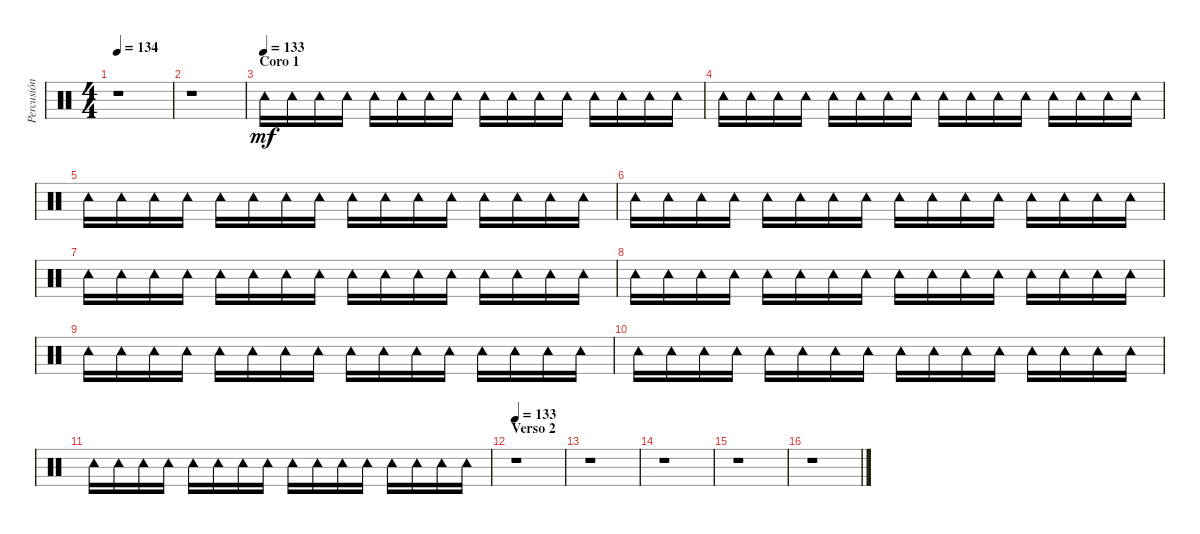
\track ("Percusión extra" "Percusión ") {instrument percussion}
\staff {score}
\articulation defaults
\ts (4 4)
\tempo 134
\clef neutral
\ks c
r.1{dy mf} |
r.1 |
\section ("" "Coro 1")
\tempo (133)
"Tambourine (hit)".16 "Tambourine (hit)".16 "Tambourine (hit)".16 "Tambourine (hit)".16 "Tambourine (hit)".16 "Tambourine (hit)".16 "Tambourine (hit)".16 "Tambourine (hit)".16 "Tambourine (hit)".16 "Tambourine (hit)".16 "Tambourine (hit)".16 "Tambourine (hit)".16 "Tambourine (hit)".16 "Tambourine (hit)".16 "Tambourine (hit)".16 "Tambourine (hit)".16 |
"Tambourine (hit)".16 "Tambourine (hit)".16 "Tambourine (hit)".16 "Tambourine (hit)".16 "Tambourine (hit)".16 "Tambourine (hit)".16 "Tambourine (hit)".16 "Tambourine (hit)".16 "Tambourine (hit)".16 "Tambourine (hit)".16 "Tambourine (hit)".16 "Tambourine (hit)".16 "Tambourine (hit)".16 "Tambourine (hit)".16 "Tambourine (hit)".16 "Tambourine (hit)".16 |
"Tambourine (hit)".16 "Tambourine (hit)".16 "Tambourine (hit)".16 "Tambourine (hit)".16 "Tambourine (hit)".16 "Tambourine (hit)".16 "Tambourine (hit)".16 "Tambourine (hit)".16 "Tambourine (hit)".16 "Tambourine (hit)".16 "Tambourine (hit)".16 "Tambourine (hit)".16 "Tambourine (hit)".16 "Tambourine (hit)".16 "Tambourine (hit)".16 "Tambourine (hit)".16 |
"Tambourine (hit)".16 "Tambourine (hit)".16 "Tambourine (hit)".16 "Tambourine (hit)".16 "Tambourine (hit)".16 "Tambourine (hit)".16 "Tambourine (hit)".16 "Tambourine (hit)".16 "Tambourine (hit)".16 "Tambourine (hit)".16 "Tambourine (hit)".16 "Tambourine (hit)".16 "Tambourine (hit)".16 "Tambourine (hit)".16 "Tambourine (hit)".16 "Tambourine (hit)".16 |
"Tambourine (hit)".16 "Tambourine (hit)".16 "Tambourine (hit)".16 "Tambourine (hit)".16 "Tambourine (hit)".16 "Tambourine (hit)".16 "Tambourine (hit)".16 "Tambourine (hit)".16 "Tambourine (hit)".16 "Tambourine (hit)".16 "Tambourine (hit)".16 "Tambourine (hit)".16 "Tambourine (hit)".16 "Tambourine (hit)".16 "Tambourine (hit)".16 "Tambourine (hit)".16 |
"Tambourine (hit)".16 "Tambourine (hit)".16 "Tambourine (hit)".16 "Tambourine (hit)".16 "Tambourine (hit)".16 "Tambourine (hit)".16 "Tambourine (hit)".16 "Tambourine (hit)".16 "Tambourine (hit)".16 "Tambourine (hit)".16 "Tambourine (hit)".16 "Tambourine (hit)".16 "Tambourine (hit)".16 "Tambourine (hit)".16 "Tambourine (hit)".16 "Tambourine (hit)".16 |
"Tambourine (hit)".16 "Tambourine (hit)".16 "Tambourine (hit)".16 "Tambourine (hit)".16 "Tambourine (hit)".16 "Tambourine (hit)".16 "Tambourine (hit)".16 "Tambourine (hit)".16 "Tambourine (hit)".16 "Tambourine (hit)".16 "Tambourine (hit)".16 "Tambourine (hit)".16 "Tambourine (hit)".16 "Tambourine (hit)".16 "Tambourine (hit)".16 "Tambourine (hit)".16 |
"Tambourine (hit)".16 "Tambourine (hit)".16 "Tambourine (hit)".16 "Tambourine (hit)".16 "Tambourine (hit)".16 "Tambourine (hit)".16 "Tambourine (hit)".16 "Tambourine (hit)".16 "Tambourine (hit)".16 "Tambourine (hit)".16 "Tambourine (hit)".16 "Tambourine (hit)".16 "Tambourine (hit)".16 "Tambourine (hit)".16 "Tambourine (hit)".16 "Tambourine (hit)".16 |
"Tambourine (hit)".16 "Tambourine (hit)".16 "Tambourine (hit)".16 "Tambourine (hit)".16 "Tambourine (hit)".16 "Tambourine (hit)".16 "Tambourine (hit)".16 "Tambourine (hit)".16 "Tambourine (hit)".16 "Tambourine (hit)".16 "Tambourine (hit)".16 "Tambourine (hit)".16 "Tambourine (hit)".16 "Tambourine (hit)".16 "Tambourine (hit)".16 "Tambourine (hit)".16 |
\section ("" "Verso 2")
\tempo 133
r.1 |
r.1 |
r.1 |
r.1 |
r.1
